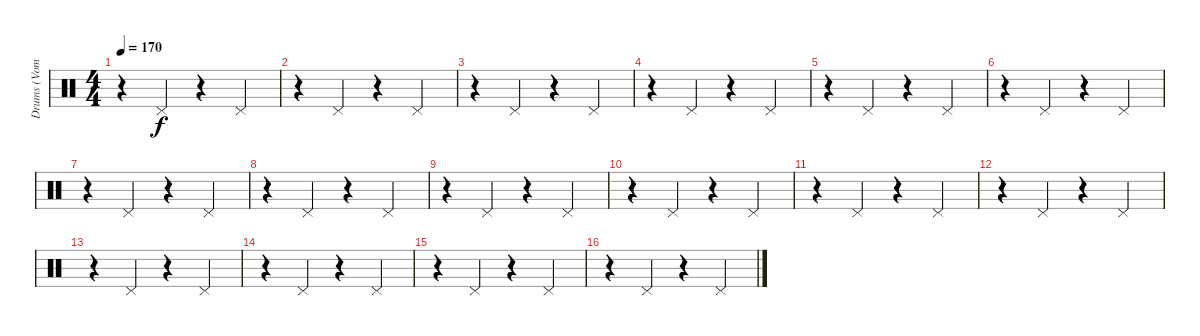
\track ("Drums (Vom)" "Drums (Vom") {instrument percussion}
\staff {score}
\articulation defaults
\ts (4 4)
\tempo 170
\clef neutral
\ks c
r.4{dy f} "Pedal Hi-Hat (hit)".4 r.4 "Pedal Hi-Hat (hit)".4 |
r.4 "Pedal Hi-Hat (hit)".4 r.4 "Pedal Hi-Hat (hit)".4 |
r.4 "Pedal Hi-Hat (hit)".4 r.4 "Pedal Hi-Hat (hit)".4 |
r.4 "Pedal Hi-Hat (hit)".4 r.4 "Pedal Hi-Hat (hit)".4 |
r.4 "Pedal Hi-Hat (hit)".4 r.4 "Pedal Hi-Hat (hit)".4 |
r.4 "Pedal Hi-Hat (hit)".4 r.4 "Pedal Hi-Hat (hit)".4 |
r.4 "Pedal Hi-Hat (hit)".4 r.4 "Pedal Hi-Hat (hit)".4 |
r.4 "Pedal Hi-Hat (hit)".4 r.4 "Pedal Hi-Hat (hit)".4 |
r.4 "Pedal Hi-Hat (hit)".4 r.4 "Pedal Hi-Hat (hit)".4 |
r.4 "Pedal Hi-Hat (hit)".4 r.4 "Pedal Hi-Hat (hit)".4 |
r.4 "Pedal Hi-Hat (hit)".4 r.4 "Pedal Hi-Hat (hit)".4 |
r.4 "Pedal Hi-Hat (hit)".4 r.4 "Pedal Hi-Hat (hit)".4 |
r.4 "Pedal Hi-Hat (hit)".4 r.4 "Pedal Hi-Hat (hit)".4 |
r.4 "Pedal Hi-Hat (hit)".4 r.4 "Pedal Hi-Hat (hit)".4 |
r.4 "Pedal Hi-Hat (hit)".4 r.4 "Pedal Hi-Hat (hit)".4 |
r.4 "Pedal Hi-Hat (hit)".4 r.4 "Pedal Hi-Hat (hit)".4
